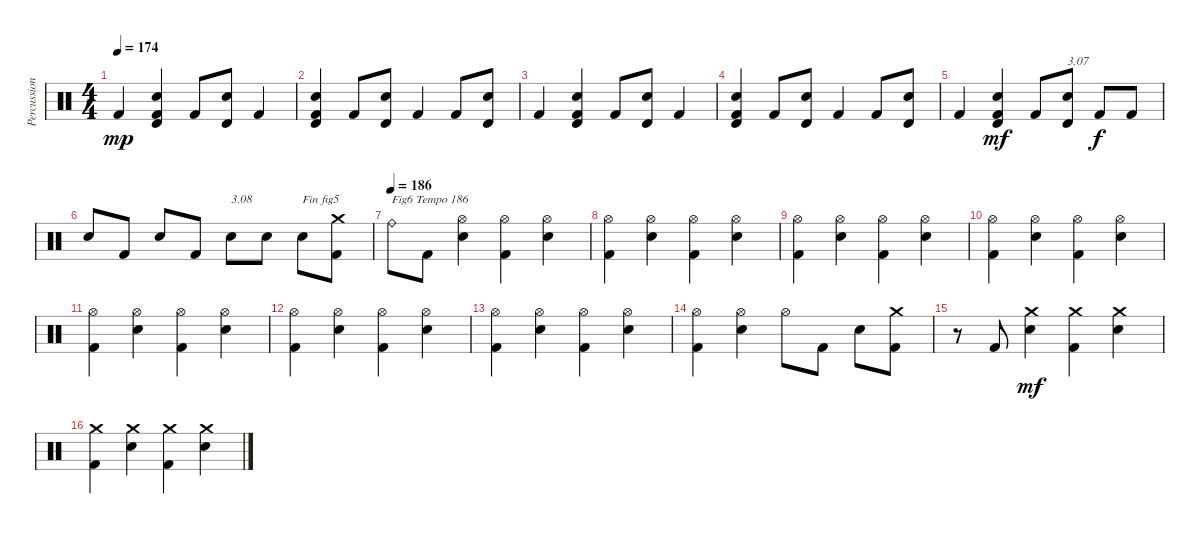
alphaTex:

\track ("Percussions" "Percussion") {instrument percussion}
\staff {score}
\articulation defaults
\ts (4 4)
\tempo 174
\clef neutral
\ks c "Kick (hit) 2".4{dy mp}
("Kick (hit) 2" "Timbale high (hit)" "Electric Snare (hit)").4 "Kick (hit) 2".8 ("Timbale high (hit)" "Electric Snare (hit)").8 "Kick (hit) 2".4 |
("Kick (hit) 2" "Timbale high (hit)" "Electric Snare (hit)").4 "Kick (hit) 2".8 ("Timbale high (hit)" "Electric Snare (hit)").8 "Kick (hit) 2".4 "Kick (hit) 2".8 ("Timbale high (hit)" "Electric Snare (hit)").8 |
"Kick (hit) 2".4 ("Kick (hit) 2" "Timbale high (hit)" "Electric Snare (hit)").4 "Kick (hit) 2".8 ("Timbale high (hit)" "Electric Snare (hit)").8 "Kick (hit) 2".4 |
("Kick (hit) 2" "Timbale high (hit)" "Electric Snare (hit)").4 "Kick (hit) 2".8 ("Timbale high (hit)" "Electric Snare (hit)").8 "Kick (hit) 2".4 "Kick (hit) 2".8 ("Timbale high (hit)" "Electric Snare (hit)").8 |
"Kick (hit) 2".4 ("Kick (hit) 2" "Timbale high (hit)" "Electric Snare (hit)").4{dy mf} "Kick (hit) 2".8 ("Timbale high (hit)" "Electric Snare (hit)").8{txt "3.07"} "Kick (hit) 2".8{dy f} "Kick (hit) 2".8 |
"Electric Snare (hit)".8 "Kick (hit) 2".8 "Electric Snare (hit)".8 "Kick (hit) 2".8 "Electric Snare (hit)".8{txt "3.08"} "Electric Snare (hit)".8 "Electric Snare (hit)".8{txt "Fin fig5"} ("Kick (hit) 2" "Crash medium (hit)").8 |
\tempo (186)
"Ride (bell)".8{txt "Fig6 Tempo 186"} "Kick (hit) 2".8 ("Electric Snare (hit)" "Hi-Hat (open)").4 ("Kick (hit) 2" "Hi-Hat (open)").4 ("Electric Snare (hit)" "Hi-Hat (open)").4 |
("Kick (hit) 2" "Hi-Hat (open)").4 ("Electric Snare (hit)" "Hi-Hat (open)").4 ("Kick (hit) 2" "Hi-Hat (open)").4 ("Electric Snare (hit)" "Hi-Hat (open)").4 |
("Kick (hit) 2" "Hi-Hat (open)").4 ("Electric Snare (hit)" "Hi-Hat (open)").4 ("Kick (hit) 2" "Hi-Hat (open)").4 ("Electric Snare (hit)" "Hi-Hat (open)").4 |
("Kick (hit) 2" "Hi-Hat (open)").4 ("Electric Snare (hit)" "Hi-Hat (open)").4 ("Kick (hit) 2" "Hi-Hat (open)").4 ("Electric Snare (hit)" "Hi-Hat (open)").4 |
("Kick (hit) 2" "Hi-Hat (open)").4 ("Electric Snare (hit)" "Hi-Hat (open)").4 ("Kick (hit) 2" "Hi-Hat (open)").4 ("Electric Snare (hit)" "Hi-Hat (open)").4 |
("Kick (hit) 2" "Hi-Hat (open)").4 ("Electric Snare (hit)" "Hi-Hat (open)").4 ("Kick (hit) 2" "Hi-Hat (open)").4 ("Electric Snare (hit)" "Hi-Hat (open)").4 |
("Kick (hit) 2" "Hi-Hat (open)").4 ("Electric Snare (hit)" "Hi-Hat (open)").4 ("Kick (hit) 2" "Hi-Hat (open)").4 ("Electric Snare (hit)" "Hi-Hat (open)").4 |
("Kick (hit) 2" "Hi-Hat (open)").4 ("Electric Snare (hit)" "Hi-Hat (open)").4 "Hi-Hat (open)".8 "Kick (hit) 2".8 "Electric Snare (hit)".8 ("Kick (hit) 2" "Crash medium (hit)").8 |
r.8 "Kick (hit) 2".8 ("Electric Snare (hit)" "Crash medium (hit)").4{dy mf} ("Kick (hit) 2" "Crash medium (hit)").4 ("Electric Snare (hit)" "Crash medium (hit)").4 |
("Kick (hit) 2" "Crash medium (hit)").4 ("Electric Snare (hit)" "Crash medium (hit)").4 ("Kick (hit) 2" "Crash medium (hit)").4 ("Electric Snare (hit)" "Crash medium (hit)").4
